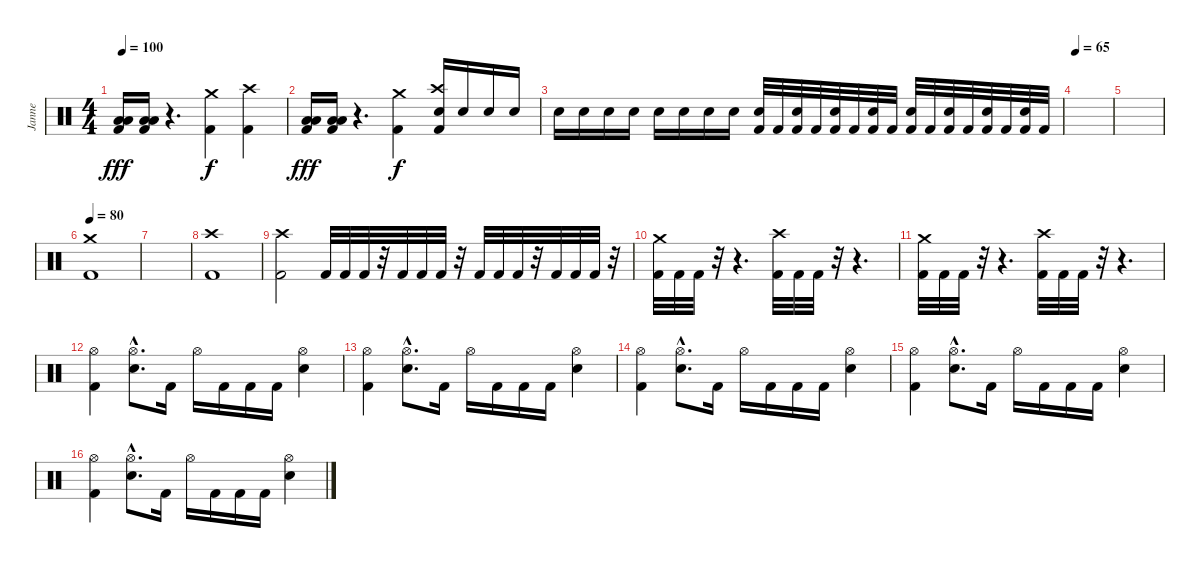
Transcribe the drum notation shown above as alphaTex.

\track ("Janne" "Janne") {instrument percussion}
\staff {score}
\articulation defaults
\ts (4 4)
\tempo 100
\clef neutral
\ks c
("Low Tom (hit)" "Low Floor Tom (hit)" "Kick (hit) 2").16{dy fff} ("Low Tom (hit)" "Low Floor Tom (hit)" "Kick (hit) 2").16 r.4{d} ("Crash medium (hit)" "Kick (hit) 2").4{dy f} ("Crash high (hit)" "Kick (hit) 2").4 |
("Low Tom (hit)" "Low Floor Tom (hit)" "Kick (hit) 2").16{dy fff} ("Low Tom (hit)" "Low Floor Tom (hit)" "Kick (hit) 2").16 r.4{d} ("Crash medium (hit)" "Kick (hit) 2").4{dy f} ("Crash high (hit)" "Electric Snare (hit)" "Kick (hit) 2").16 "Electric Snare (hit)".16 "Electric Snare (hit)".16 "Electric Snare (hit)".16 |
"Electric Snare (hit)".16 "Electric Snare (hit)".16 "Electric Snare (hit)".16 "Electric Snare (hit)".16 "Electric Snare (hit)".16 "Electric Snare (hit)".16 "Electric Snare (hit)".16 "Electric Snare (hit)".16 ("Electric Snare (hit)" "Kick (hit) 2").32 "Kick (hit) 2".32 ("Electric Snare (hit)" "Kick (hit) 2").32 "Kick (hit) 2".32 ("Electric Snare (hit)" "Kick (hit) 2").32 "Kick (hit) 2".32 ("Electric Snare (hit)" "Kick (hit) 2").32 "Kick (hit) 2".32 ("Electric Snare (hit)" "Kick (hit) 2").32 "Kick (hit) 2".32 ("Electric Snare (hit)" "Kick (hit) 2").32 "Kick (hit) 2".32 ("Electric Snare (hit)" "Kick (hit) 2").32 "Kick (hit) 2".32 ("Electric Snare (hit)" "Kick (hit) 2").32 "Kick (hit) 2".32 |
\tempo 65
|
|
\tempo 80
("Crash medium (hit)" "Kick (hit) 2").1 |
|
("Crash high (hit)" "Kick (hit) 2").1 |
("Crash high (hit)" "Kick (hit) 2").2 "Kick (hit) 2".32 "Kick (hit) 2".32 "Kick (hit) 2".32 r.32 "Kick (hit) 2".32 "Kick (hit) 2".32 "Kick (hit) 2".32 r.32 "Kick (hit) 2".32 "Kick (hit) 2".32 "Kick (hit) 2".32 r.32 "Kick (hit) 2".32 "Kick (hit) 2".32 "Kick (hit) 2".32 r.32 |
("Crash medium (hit)" "Kick (hit) 2").32 "Kick (hit) 2".32 "Kick (hit) 2".32 r.32 r.4{d} ("Crash high (hit)" "Kick (hit) 2").32 "Kick (hit) 2".32 "Kick (hit) 2".32 r.32 r.4{d} |
("Crash medium (hit)" "Kick (hit) 2").32 "Kick (hit) 2".32 "Kick (hit) 2".32 r.32 r.4{d} ("Crash high (hit)" "Kick (hit) 2").32 "Kick (hit) 2".32 "Kick (hit) 2".32 r.32 r.4{d} |
("Hi-Hat (open)" "Kick (hit) 2").4 ("Hi-Hat (open)"{hac} "Electric Snare (hit)"{hac}).8{d} "Kick (hit) 2".16 "Hi-Hat (open)".16 "Kick (hit) 2".16 "Kick (hit) 2".16 "Kick (hit) 2".16 ("Hi-Hat (open)" "Electric Snare (hit)").4 |
("Hi-Hat (open)" "Kick (hit) 2").4 ("Hi-Hat (open)"{hac} "Electric Snare (hit)"{hac}).8{d} "Kick (hit) 2".16 "Hi-Hat (open)".16 "Kick (hit) 2".16 "Kick (hit) 2".16 "Kick (hit) 2".16 ("Hi-Hat (open)" "Electric Snare (hit)").4 |
("Hi-Hat (open)" "Kick (hit) 2").4 ("Hi-Hat (open)"{hac} "Electric Snare (hit)"{hac}).8{d} "Kick (hit) 2".16 "Hi-Hat (open)".16 "Kick (hit) 2".16 "Kick (hit) 2".16 "Kick (hit) 2".16 ("Hi-Hat (open)" "Electric Snare (hit)").4 |
("Hi-Hat (open)" "Kick (hit) 2").4 ("Hi-Hat (open)"{hac} "Electric Snare (hit)"{hac}).8{d} "Kick (hit) 2".16 "Hi-Hat (open)".16 "Kick (hit) 2".16 "Kick (hit) 2".16 "Kick (hit) 2".16 ("Hi-Hat (open)" "Electric Snare (hit)").4 |
("Hi-Hat (open)" "Kick (hit) 2").4 ("Hi-Hat (open)"{hac} "Electric Snare (hit)"{hac}).8{d} "Kick (hit) 2".16 "Hi-Hat (open)".16 "Kick (hit) 2".16 "Kick (hit) 2".16 "Kick (hit) 2".16 ("Hi-Hat (open)" "Electric Snare (hit)").4
